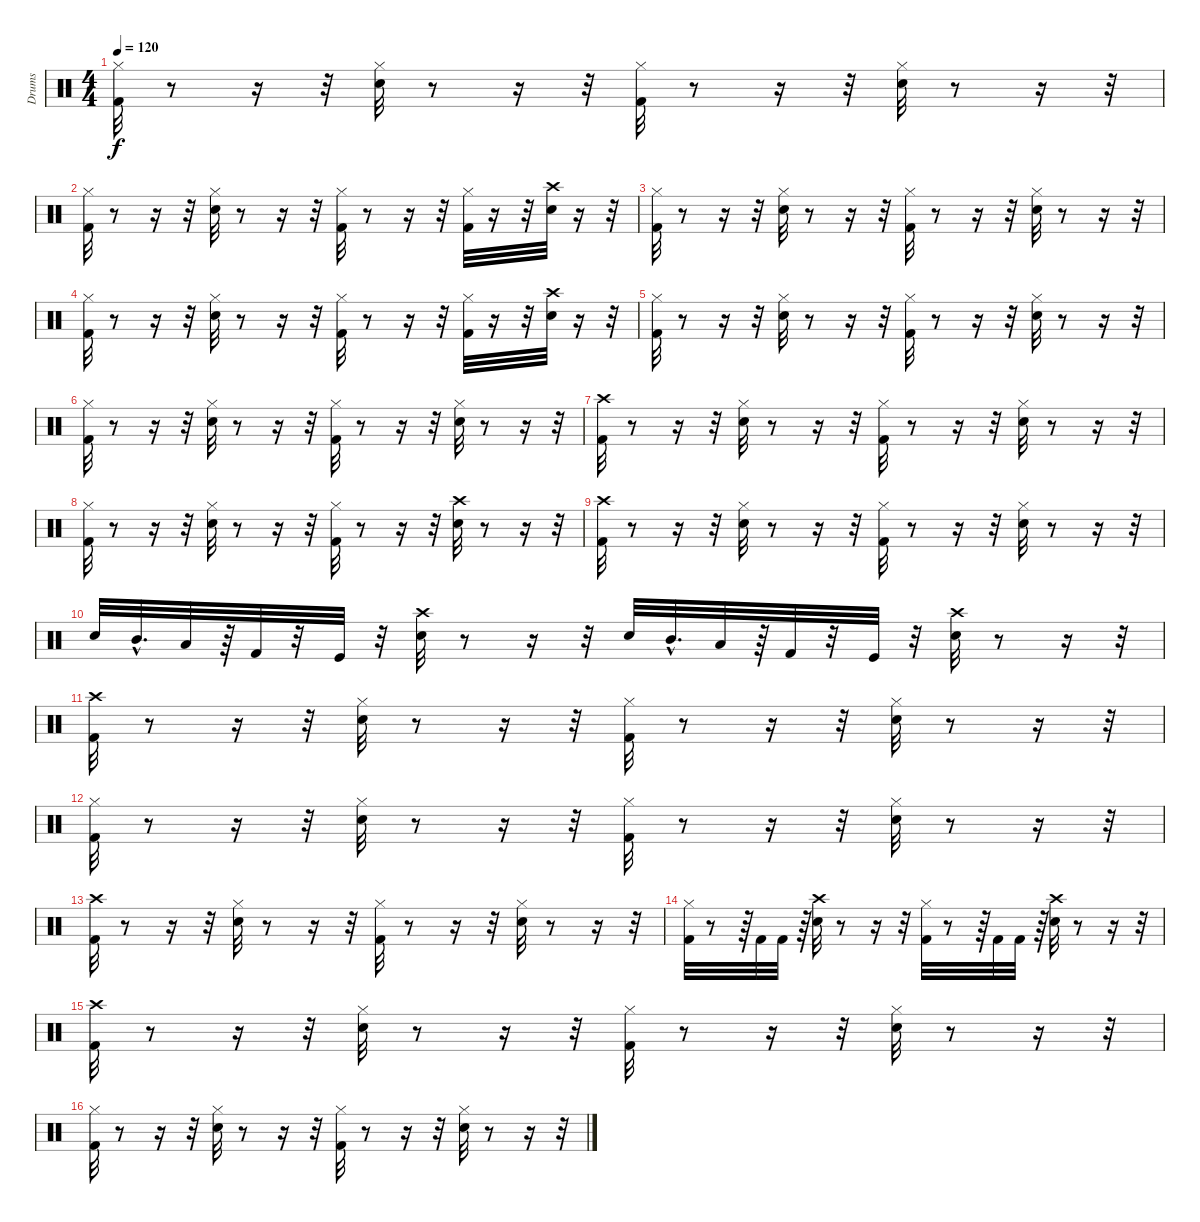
\track ("Drums" "Drums") {instrument percussion}
\staff {score}
\articulation defaults
\ts (4 4)
\tempo 120
\clef neutral
\ks c
("Hi-Hat (closed)" "Kick (hit) 2").32{dy f} r.8 r.16 r.32 ("Hi-Hat (closed)" "Snare (hit) 2").32 r.8 r.16 r.32 ("Hi-Hat (closed)" "Kick (hit) 2").32 r.8 r.16 r.32 ("Hi-Hat (closed)" "Snare (hit) 2").32 r.8 r.16 r.32 |
("Kick (hit) 2" "Hi-Hat (closed)").32 r.8 r.16 r.32 ("Snare (hit) 2" "Hi-Hat (closed)").32 r.8 r.16 r.32 ("Kick (hit) 2" "Hi-Hat (closed)").32 r.8 r.16 r.32 ("Kick (hit) 2" "Hi-Hat (closed)").32 r.16 r.32 ("Snare (hit) 2" "Crash high (hit)").32 r.16 r.32 |
("Hi-Hat (closed)" "Kick (hit) 2").32 r.8 r.16 r.32 ("Hi-Hat (closed)" "Snare (hit) 2").32 r.8 r.16 r.32 ("Hi-Hat (closed)" "Kick (hit) 2").32 r.8 r.16 r.32 ("Hi-Hat (closed)" "Snare (hit) 2").32 r.8 r.16 r.32 |
("Kick (hit) 2" "Hi-Hat (closed)").32 r.8 r.16 r.32 ("Snare (hit) 2" "Hi-Hat (closed)").32 r.8 r.16 r.32 ("Kick (hit) 2" "Hi-Hat (closed)").32 r.8 r.16 r.32 ("Kick (hit) 2" "Hi-Hat (closed)").32 r.16 r.32 ("Snare (hit) 2" "Crash high (hit)").32 r.16 r.32 |
("Kick (hit) 2" "Hi-Hat (closed)").32 r.8 r.16 r.32 ("Snare (hit) 2" "Hi-Hat (closed)").32 r.8 r.16 r.32 ("Kick (hit) 2" "Hi-Hat (closed)").32 r.8 r.16 r.32 ("Snare (hit) 2" "Hi-Hat (closed)").32 r.8 r.16 r.32 |
("Hi-Hat (closed)" "Kick (hit) 2").32 r.8 r.16 r.32 ("Hi-Hat (closed)" "Snare (hit) 2").32 r.8 r.16 r.32 ("Hi-Hat (closed)" "Kick (hit) 2").32 r.8 r.16 r.32 ("Hi-Hat (closed)" "Snare (hit) 2").32 r.8 r.16 r.32 |
("Kick (hit) 2" "Crash high (hit)").32 r.8 r.16 r.32 ("Snare (hit) 2" "Hi-Hat (closed)").32 r.8 r.16 r.32 ("Kick (hit) 2" "Hi-Hat (closed)").32 r.8 r.16 r.32 ("Snare (hit) 2" "Hi-Hat (closed)").32 r.8 r.16 r.32 |
("Hi-Hat (closed)" "Kick (hit) 2").32 r.8 r.16 r.32 ("Hi-Hat (closed)" "Snare (hit) 2").32 r.8 r.16 r.32 ("Hi-Hat (closed)" "Kick (hit) 2").32 r.8 r.16 r.32 ("Crash high (hit)" "Snare (hit) 2").32 r.8 r.16 r.32 |
("Kick (hit) 2" "Crash high (hit)").32 r.8 r.16 r.32 ("Snare (hit) 2" "Hi-Hat (closed)").32 r.8 r.16 r.32 ("Kick (hit) 2" "Hi-Hat (closed)").32 r.8 r.16 r.32 ("Snare (hit) 2" "Hi-Hat (closed)").32 r.8 r.16 r.32 |
"Snare (hit) 2".32 "Mid Tom (hit)"{hac}.32{d} "Low Floor Tom (hit)".32 r.64 "Kick (hit) 2".32 r.32 "Kick (hit)".32 r.32 ("Snare (hit) 2" "Crash high (hit)").32 r.8 r.16 r.32 "Snare (hit) 2".32 "Mid Tom (hit)"{hac}.32{d} "Low Floor Tom (hit)".32 r.64 "Kick (hit) 2".32 r.32 "Kick (hit)".32 r.32 ("Crash high (hit)" "Snare (hit) 2").32 r.8 r.16 r.32 |
("Kick (hit) 2" "Crash high (hit)").32 r.8 r.16 r.32 ("Snare (hit) 2" "Hi-Hat (closed)").32 r.8 r.16 r.32 ("Kick (hit) 2" "Hi-Hat (closed)").32 r.8 r.16 r.32 ("Snare (hit) 2" "Hi-Hat (closed)").32 r.8 r.16 r.32 |
("Kick (hit) 2" "Hi-Hat (closed)").32 r.8 r.16 r.32 ("Snare (hit) 2" "Hi-Hat (closed)").32 r.8 r.16 r.32 ("Kick (hit) 2" "Hi-Hat (closed)").32 r.8 r.16 r.32 ("Snare (hit) 2" "Hi-Hat (closed)").32 r.8 r.16 r.32 |
("Kick (hit) 2" "Crash high (hit)").32 r.8 r.16 r.32 ("Hi-Hat (closed)" "Snare (hit) 2").32 r.8 r.16 r.32 ("Hi-Hat (closed)" "Kick (hit) 2").32 r.8 r.16 r.32 ("Hi-Hat (closed)" "Snare (hit) 2").32 r.8 r.16 r.32 |
("Kick (hit) 2" "Hi-Hat (closed)").32 r.8 r.64 "Kick (hit) 2".32 "Kick (hit) 2".32 r.64 ("Crash high (hit)" "Snare (hit) 2").32 r.8 r.16 r.32 ("Kick (hit) 2" "Hi-Hat (closed)").32 r.8 r.64 "Kick (hit) 2".32 "Kick (hit) 2".32 r.64 ("Crash high (hit)" "Snare (hit) 2").32 r.8 r.16 r.32 |
("Kick (hit) 2" "Crash high (hit)").32 r.8 r.16 r.32 ("Snare (hit) 2" "Hi-Hat (closed)").32 r.8 r.16 r.32 ("Kick (hit) 2" "Hi-Hat (closed)").32 r.8 r.16 r.32 ("Snare (hit) 2" "Hi-Hat (closed)").32 r.8 r.16 r.32 |
("Hi-Hat (closed)" "Kick (hit) 2").32 r.8 r.16 r.32 ("Hi-Hat (closed)" "Snare (hit) 2").32 r.8 r.16 r.32 ("Hi-Hat (closed)" "Kick (hit) 2").32 r.8 r.16 r.32 ("Hi-Hat (closed)" "Snare (hit) 2").32 r.8 r.16 r.32
